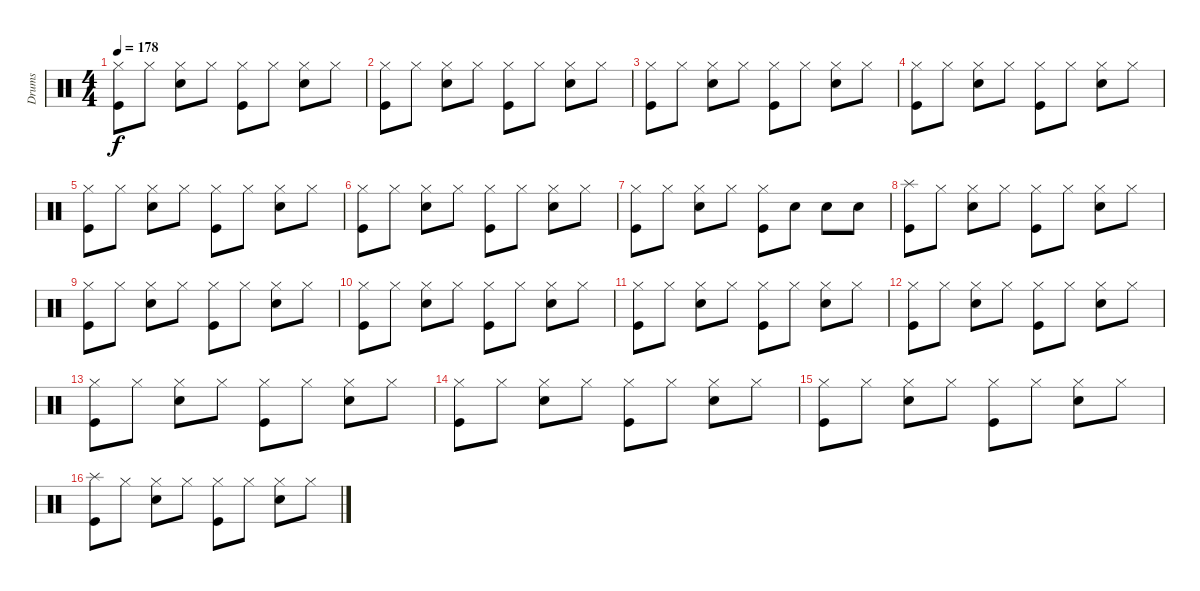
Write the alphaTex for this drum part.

\track ("Drums" "Drums") {instrument percussion}
\staff {score}
\articulation defaults
\ts (4 4)
\tempo 178
\clef neutral
\ks c
("Hi-Hat (closed)" "Kick (hit)").8{dy f} "Hi-Hat (closed)".8 ("Hi-Hat (closed)" "Electric Snare (hit)").8 "Hi-Hat (closed)".8 ("Hi-Hat (closed)" "Kick (hit)").8 "Hi-Hat (closed)".8 ("Hi-Hat (closed)" "Electric Snare (hit)").8 "Hi-Hat (closed)".8 |
("Hi-Hat (closed)" "Kick (hit)").8 "Hi-Hat (closed)".8 ("Hi-Hat (closed)" "Electric Snare (hit)").8 "Hi-Hat (closed)".8 ("Hi-Hat (closed)" "Kick (hit)").8 "Hi-Hat (closed)".8 ("Hi-Hat (closed)" "Electric Snare (hit)").8 "Hi-Hat (closed)".8 |
("Hi-Hat (closed)" "Kick (hit)").8 "Hi-Hat (closed)".8 ("Hi-Hat (closed)" "Electric Snare (hit)").8 "Hi-Hat (closed)".8 ("Hi-Hat (closed)" "Kick (hit)").8 "Hi-Hat (closed)".8 ("Hi-Hat (closed)" "Electric Snare (hit)").8 "Hi-Hat (closed)".8 |
("Hi-Hat (closed)" "Kick (hit)").8 "Hi-Hat (closed)".8 ("Hi-Hat (closed)" "Electric Snare (hit)").8 "Hi-Hat (closed)".8 ("Hi-Hat (closed)" "Kick (hit)").8 "Hi-Hat (closed)".8 ("Hi-Hat (closed)" "Electric Snare (hit)").8 "Hi-Hat (closed)".8 |
("Hi-Hat (closed)" "Kick (hit)").8 "Hi-Hat (closed)".8 ("Hi-Hat (closed)" "Electric Snare (hit)").8 "Hi-Hat (closed)".8 ("Hi-Hat (closed)" "Kick (hit)").8 "Hi-Hat (closed)".8 ("Hi-Hat (closed)" "Electric Snare (hit)").8 "Hi-Hat (closed)".8 |
("Hi-Hat (closed)" "Kick (hit)").8 "Hi-Hat (closed)".8 ("Hi-Hat (closed)" "Electric Snare (hit)").8 "Hi-Hat (closed)".8 ("Hi-Hat (closed)" "Kick (hit)").8 "Hi-Hat (closed)".8 ("Hi-Hat (closed)" "Electric Snare (hit)").8 "Hi-Hat (closed)".8 |
("Hi-Hat (closed)" "Kick (hit)").8 "Hi-Hat (closed)".8 ("Hi-Hat (closed)" "Electric Snare (hit)").8 "Hi-Hat (closed)".8 ("Hi-Hat (closed)" "Kick (hit)").8 "Electric Snare (hit)".8 "Electric Snare (hit)".8 "Electric Snare (hit)".8 |
("Splash (hit)" "Kick (hit)").8 "Hi-Hat (closed)".8 ("Hi-Hat (closed)" "Electric Snare (hit)").8 "Hi-Hat (closed)".8 ("Hi-Hat (closed)" "Kick (hit)").8 "Hi-Hat (closed)".8 ("Hi-Hat (closed)" "Electric Snare (hit)").8 "Hi-Hat (closed)".8 |
("Hi-Hat (closed)" "Kick (hit)").8 "Hi-Hat (closed)".8 ("Hi-Hat (closed)" "Electric Snare (hit)").8 "Hi-Hat (closed)".8 ("Hi-Hat (closed)" "Kick (hit)").8 "Hi-Hat (closed)".8 ("Hi-Hat (closed)" "Electric Snare (hit)").8 "Hi-Hat (closed)".8 |
("Hi-Hat (closed)" "Kick (hit)").8 "Hi-Hat (closed)".8 ("Hi-Hat (closed)" "Electric Snare (hit)").8 "Hi-Hat (closed)".8 ("Hi-Hat (closed)" "Kick (hit)").8 "Hi-Hat (closed)".8 ("Hi-Hat (closed)" "Electric Snare (hit)").8 "Hi-Hat (closed)".8 |
("Hi-Hat (closed)" "Kick (hit)").8 "Hi-Hat (closed)".8 ("Hi-Hat (closed)" "Electric Snare (hit)").8 "Hi-Hat (closed)".8 ("Hi-Hat (closed)" "Kick (hit)").8 "Hi-Hat (closed)".8 ("Hi-Hat (closed)" "Electric Snare (hit)").8 "Hi-Hat (closed)".8 |
("Hi-Hat (closed)" "Kick (hit)").8 "Hi-Hat (closed)".8 ("Hi-Hat (closed)" "Electric Snare (hit)").8 "Hi-Hat (closed)".8 ("Hi-Hat (closed)" "Kick (hit)").8 "Hi-Hat (closed)".8 ("Hi-Hat (closed)" "Electric Snare (hit)").8 "Hi-Hat (closed)".8 |
("Hi-Hat (closed)" "Kick (hit)").8 "Hi-Hat (closed)".8 ("Hi-Hat (closed)" "Electric Snare (hit)").8 "Hi-Hat (closed)".8 ("Hi-Hat (closed)" "Kick (hit)").8 "Hi-Hat (closed)".8 ("Hi-Hat (closed)" "Electric Snare (hit)").8 "Hi-Hat (closed)".8 |
("Hi-Hat (closed)" "Kick (hit)").8 "Hi-Hat (closed)".8 ("Hi-Hat (closed)" "Electric Snare (hit)").8 "Hi-Hat (closed)".8 ("Hi-Hat (closed)" "Kick (hit)").8 "Hi-Hat (closed)".8 ("Hi-Hat (closed)" "Electric Snare (hit)").8 "Hi-Hat (closed)".8 |
("Hi-Hat (closed)" "Kick (hit)").8 "Hi-Hat (closed)".8 ("Hi-Hat (closed)" "Electric Snare (hit)").8 "Hi-Hat (closed)".8 ("Hi-Hat (closed)" "Kick (hit)").8 "Hi-Hat (closed)".8 ("Hi-Hat (closed)" "Electric Snare (hit)").8 "Hi-Hat (closed)".8 |
("Splash (hit)" "Kick (hit)").8 "Hi-Hat (closed)".8 ("Hi-Hat (closed)" "Electric Snare (hit)").8 "Hi-Hat (closed)".8 ("Hi-Hat (closed)" "Kick (hit)").8 "Hi-Hat (closed)".8 ("Hi-Hat (closed)" "Electric Snare (hit)").8 "Hi-Hat (closed)".8
